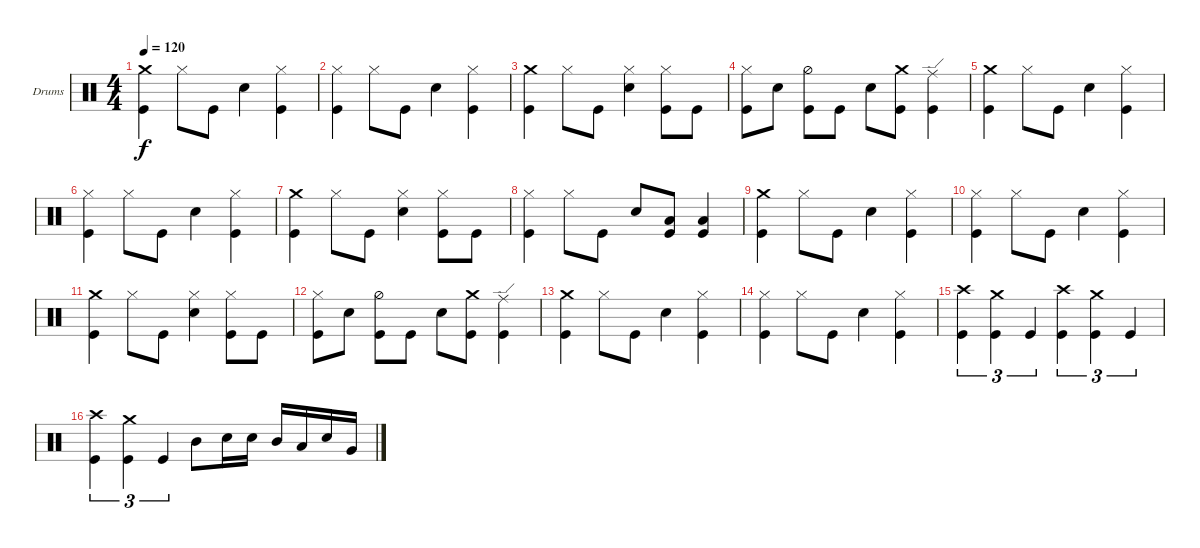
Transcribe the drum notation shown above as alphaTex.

\bracketExtendMode groupsimilarinstruments
\firstSystemTrackNameOrientation horizontal
\otherSystemsTrackNameOrientation horizontal
\track ("Drumkit" "Drums") {instrument percussion}
\staff {score}
\articulation defaults
\ts (4 4)
\tempo 120
\clef neutral
\scale
0.333333
\ks c
("Kick (hit)" "Crash medium (hit)").4{dy f} "Hi-Hat (closed)".8 "Kick (hit)".8 "Snare (hit) 2".4 ("Hi-Hat (closed)" "Kick (hit)").4 |
\scale
0.333333 ("Kick (hit)" "Hi-Hat (closed)").4 "Hi-Hat (closed)".8 "Kick (hit)".8 "Snare (hit) 2".4 ("Kick (hit)" "Hi-Hat (closed)").4 |
\scale
0.333333 ("Kick (hit)" "Crash medium (hit)").4 "Hi-Hat (closed)".8 "Kick (hit)".8 ("Snare (hit) 2" "Hi-Hat (closed)").4 ("Hi-Hat (closed)" "Kick (hit)").8 "Kick (hit)".8 |
\scale
0.333333 ("Kick (hit)" "Hi-Hat (closed)").8 "Snare (hit) 2".8 ("Kick (hit)" "Hi-Hat (half)").8 "Kick (hit)".8 "Snare (hit) 2".8 ("Kick (hit)" "Crash medium (hit)").8 ("Kick (hit)" "Ride (edge)").4 |
\scale
0.333333 ("Kick (hit)" "Crash medium (hit)").4 "Hi-Hat (closed)".8 "Kick (hit)".8 "Snare (hit) 2".4 ("Hi-Hat (closed)" "Kick (hit)").4 |
\scale
0.333333 ("Kick (hit)" "Hi-Hat (closed)").4 "Hi-Hat (closed)".8 "Kick (hit)".8 "Snare (hit) 2".4 ("Kick (hit)" "Hi-Hat (closed)").4 |
\scale
0.333333 ("Kick (hit)" "Crash medium (hit)").4 "Hi-Hat (closed)".8 "Kick (hit)".8 ("Snare (hit) 2" "Hi-Hat (closed)").4 ("Hi-Hat (closed)" "Kick (hit)").8 "Kick (hit)".8 |
\scale
0.333333 ("Kick (hit)" "Hi-Hat (closed)").4 "Hi-Hat (closed)".8 "Kick (hit)".8 "Snare (hit) 2".8 ("Kick (hit)" "Low Tom (hit)").8 ("Kick (hit)" "Low Tom (hit)").4 |
\scale
0.333333 ("Kick (hit)" "Crash medium (hit)").4 "Hi-Hat (closed)".8 "Kick (hit)".8 "Snare (hit) 2".4 ("Hi-Hat (closed)" "Kick (hit)").4 |
\scale
0.333333 ("Kick (hit)" "Hi-Hat (closed)").4 "Hi-Hat (closed)".8 "Kick (hit)".8 "Snare (hit) 2".4 ("Kick (hit)" "Hi-Hat (closed)").4 |
\scale
0.333333 ("Kick (hit)" "Crash medium (hit)").4 "Hi-Hat (closed)".8 "Kick (hit)".8 ("Snare (hit) 2" "Hi-Hat (closed)").4 ("Hi-Hat (closed)" "Kick (hit)").8 "Kick (hit)".8 |
\scale
0.333333 ("Kick (hit)" "Hi-Hat (closed)").8 "Snare (hit) 2".8 ("Kick (hit)" "Hi-Hat (half)").8 "Kick (hit)".8 "Snare (hit) 2".8 ("Kick (hit)" "Crash medium (hit)").8 ("Kick (hit)" "Ride (edge)").4 |
\scale
0.333333 ("Kick (hit)" "Crash medium (hit)").4 "Hi-Hat (closed)".8 "Kick (hit)".8 "Snare (hit) 2".4 ("Hi-Hat (closed)" "Kick (hit)").4 |
\scale
0.333333 ("Kick (hit)" "Hi-Hat (closed)").4 "Hi-Hat (closed)".8 "Kick (hit)".8 "Snare (hit) 2".4 ("Kick (hit)" "Hi-Hat (closed)").4 |
\scale
0.333333 ("Kick (hit)" "Crash high (hit)").4{tu (3 2)} ("Kick (hit)" "Crash medium (hit)").4{tu (3 2)} "Kick (hit)".4{tu (3 2)} ("Kick (hit)" "Crash high (hit)").4{tu (3 2)} ("Kick (hit)" "Crash medium (hit)").4{tu (3 2)} "Kick (hit)".4{tu (3 2)} |
\scale
0.333333 ("Kick (hit)" "Crash high (hit)").4{tu (3 2)} ("Kick (hit)" "Crash medium (hit)").4{tu (3 2)} "Kick (hit)".4{tu (3 2)} "Mid Tom (hit)".8 "Snare (hit) 2".16 "Snare (hit) 2".16 "Mid Tom (hit)".16 "Low Tom (hit)".16 "Snare (hit) 2".16 "Very Low Tom (hit)".16
